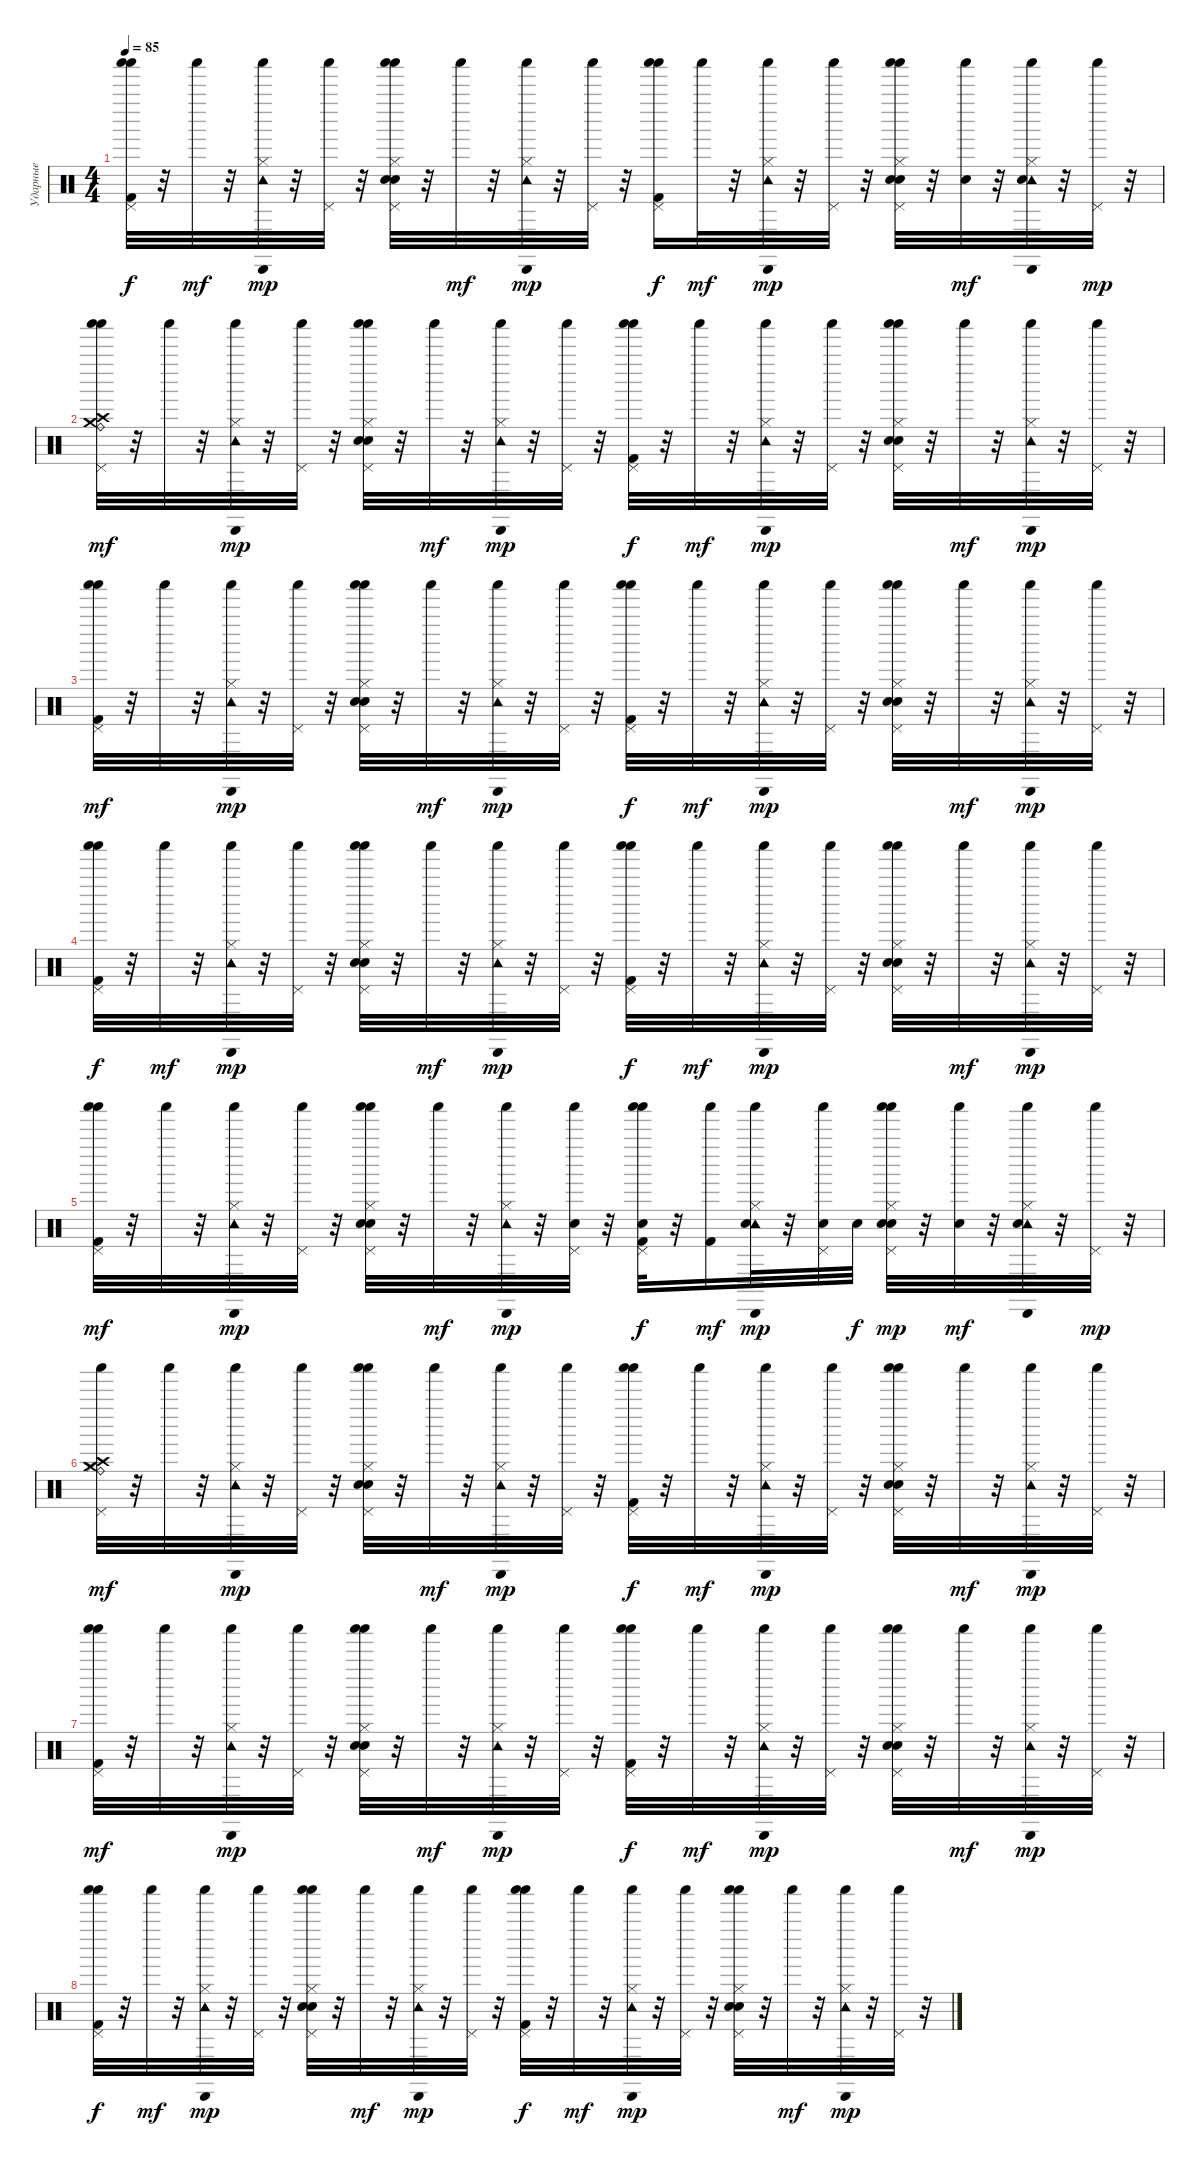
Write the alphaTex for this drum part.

\track ("Ударные" "Ударные") {instrument percussion}
\staff {score}
\articulation defaults
\ts (4 4)
\tempo 85
\clef neutral
\ks c
("Pedal Hi-Hat (hit)" "Shaker (hit)" "Shaker (hit)" "Kick (hit) 2").32{dy f} r.32 "Shaker (hit)".32{dy mf} r.32 ("Hi-Hat (closed)" "Cabasa (hit)" "Shaker (hit)" "Tambourine (hit)").32{dy mp} r.32 ("Pedal Hi-Hat (hit)" "Shaker (hit)").32 r.32 ("Hi-Hat (closed)" "Pedal Hi-Hat (hit)" "Shaker (hit)" "Shaker (hit)" "Snare (hit) 2" "Electric Snare (hit)").32 r.32 "Shaker (hit)".32{dy mf} r.32 ("Hi-Hat (closed)" "Cabasa (hit)" "Shaker (hit)" "Tambourine (hit)").32{dy mp} r.32 ("Pedal Hi-Hat (hit)" "Shaker (hit)").32 r.32 ("Pedal Hi-Hat (hit)" "Shaker (hit)" "Shaker (hit)" "Kick (hit) 2").16{dy f} "Shaker (hit)".32{dy mf} r.32 ("Hi-Hat (closed)" "Cabasa (hit)" "Shaker (hit)" "Tambourine (hit)").32{dy mp} r.32 ("Pedal Hi-Hat (hit)" "Shaker (hit)").32 r.32 ("Hi-Hat (closed)" "Pedal Hi-Hat (hit)" "Shaker (hit)" "Shaker (hit)" "Snare (hit) 2" "Electric Snare (hit)").32 r.32 ("Shaker (hit)" "Snare (hit) 2").32{dy mf} r.32 ("Hi-Hat (closed)" "Cabasa (hit)" "Shaker (hit)" "Tambourine (hit)" "Snare (hit) 2").32 r.32 ("Pedal Hi-Hat (hit)" "Shaker (hit)").32{dy mp} r.32 |
("Ride (bell)" "Crash high (hit)" "Crash medium (hit)" "Pedal Hi-Hat (hit)" "Shaker (hit)" "Shaker (hit)").32{dy mf} r.32 "Shaker (hit)".32 r.32 ("Hi-Hat (closed)" "Cabasa (hit)" "Shaker (hit)" "Tambourine (hit)").32{dy mp} r.32 ("Pedal Hi-Hat (hit)" "Shaker (hit)").32 r.32 ("Hi-Hat (closed)" "Pedal Hi-Hat (hit)" "Shaker (hit)" "Shaker (hit)" "Snare (hit) 2" "Electric Snare (hit)").32 r.32 "Shaker (hit)".32{dy mf} r.32 ("Hi-Hat (closed)" "Cabasa (hit)" "Shaker (hit)" "Tambourine (hit)").32{dy mp} r.32 ("Pedal Hi-Hat (hit)" "Shaker (hit)").32 r.32 ("Pedal Hi-Hat (hit)" "Shaker (hit)" "Shaker (hit)" "Kick (hit) 2").32{dy f} r.32 "Shaker (hit)".32{dy mf} r.32 ("Hi-Hat (closed)" "Cabasa (hit)" "Shaker (hit)" "Tambourine (hit)").32{dy mp} r.32 ("Pedal Hi-Hat (hit)" "Shaker (hit)").32 r.32 ("Hi-Hat (closed)" "Pedal Hi-Hat (hit)" "Shaker (hit)" "Shaker (hit)" "Snare (hit) 2" "Electric Snare (hit)").32 r.32 "Shaker (hit)".32{dy mf} r.32 ("Hi-Hat (closed)" "Cabasa (hit)" "Shaker (hit)" "Tambourine (hit)").32{dy mp} r.32 ("Pedal Hi-Hat (hit)" "Shaker (hit)").32 r.32 |
("Pedal Hi-Hat (hit)" "Shaker (hit)" "Shaker (hit)" "Kick (hit) 2").32{dy mf} r.32 "Shaker (hit)".32 r.32 ("Hi-Hat (closed)" "Cabasa (hit)" "Shaker (hit)" "Tambourine (hit)").32{dy mp} r.32 ("Pedal Hi-Hat (hit)" "Shaker (hit)").32 r.32 ("Hi-Hat (closed)" "Pedal Hi-Hat (hit)" "Shaker (hit)" "Shaker (hit)" "Snare (hit) 2" "Electric Snare (hit)").32 r.32 "Shaker (hit)".32{dy mf} r.32 ("Hi-Hat (closed)" "Cabasa (hit)" "Shaker (hit)" "Tambourine (hit)").32{dy mp} r.32 ("Pedal Hi-Hat (hit)" "Shaker (hit)").32 r.32 ("Pedal Hi-Hat (hit)" "Shaker (hit)" "Shaker (hit)" "Kick (hit) 2").32{dy f} r.32 "Shaker (hit)".32{dy mf} r.32 ("Hi-Hat (closed)" "Cabasa (hit)" "Shaker (hit)" "Tambourine (hit)").32{dy mp} r.32 ("Pedal Hi-Hat (hit)" "Shaker (hit)").32 r.32 ("Hi-Hat (closed)" "Pedal Hi-Hat (hit)" "Shaker (hit)" "Shaker (hit)" "Snare (hit) 2" "Electric Snare (hit)").32 r.32 "Shaker (hit)".32{dy mf} r.32 ("Hi-Hat (closed)" "Cabasa (hit)" "Shaker (hit)" "Tambourine (hit)").32{dy mp} r.32 ("Pedal Hi-Hat (hit)" "Shaker (hit)").32 r.32 |
("Pedal Hi-Hat (hit)" "Shaker (hit)" "Shaker (hit)" "Kick (hit) 2").32{dy f} r.32 "Shaker (hit)".32{dy mf} r.32 ("Hi-Hat (closed)" "Cabasa (hit)" "Shaker (hit)" "Tambourine (hit)").32{dy mp} r.32 ("Pedal Hi-Hat (hit)" "Shaker (hit)").32 r.32 ("Hi-Hat (closed)" "Pedal Hi-Hat (hit)" "Shaker (hit)" "Shaker (hit)" "Snare (hit) 2" "Electric Snare (hit)").32 r.32 "Shaker (hit)".32{dy mf} r.32 ("Hi-Hat (closed)" "Cabasa (hit)" "Shaker (hit)" "Tambourine (hit)").32{dy mp} r.32 ("Pedal Hi-Hat (hit)" "Shaker (hit)").32 r.32 ("Pedal Hi-Hat (hit)" "Shaker (hit)" "Shaker (hit)" "Kick (hit) 2").32{dy f} r.32 "Shaker (hit)".32{dy mf} r.32 ("Hi-Hat (closed)" "Cabasa (hit)" "Shaker (hit)" "Tambourine (hit)").32{dy mp} r.32 ("Pedal Hi-Hat (hit)" "Shaker (hit)").32 r.32 ("Hi-Hat (closed)" "Pedal Hi-Hat (hit)" "Shaker (hit)" "Shaker (hit)" "Snare (hit) 2" "Electric Snare (hit)").32 r.32 "Shaker (hit)".32{dy mf} r.32 ("Hi-Hat (closed)" "Cabasa (hit)" "Shaker (hit)" "Tambourine (hit)").32{dy mp} r.32 ("Pedal Hi-Hat (hit)" "Shaker (hit)").32 r.32 |
("Pedal Hi-Hat (hit)" "Shaker (hit)" "Shaker (hit)" "Kick (hit) 2").32{dy mf} r.32 "Shaker (hit)".32 r.32 ("Hi-Hat (closed)" "Cabasa (hit)" "Shaker (hit)" "Tambourine (hit)").32{dy mp} r.32 ("Pedal Hi-Hat (hit)" "Shaker (hit)").32 r.32 ("Hi-Hat (closed)" "Pedal Hi-Hat (hit)" "Shaker (hit)" "Shaker (hit)" "Snare (hit) 2" "Electric Snare (hit)").32 r.32 "Shaker (hit)".32{dy mf} r.32 ("Hi-Hat (closed)" "Cabasa (hit)" "Shaker (hit)" "Tambourine (hit)").32{dy mp} r.32 ("Pedal Hi-Hat (hit)" "Shaker (hit)" "Snare (hit) 2").32 r.32 ("Pedal Hi-Hat (hit)" "Shaker (hit)" "Shaker (hit)" "Kick (hit) 2" "Snare (hit) 2").32{dy f} r.32 ("Shaker (hit)" "Kick (hit) 2").16{dy mf} ("Hi-Hat (closed)" "Cabasa (hit)" "Shaker (hit)" "Tambourine (hit)" "Snare (hit) 2").32{dy mp} r.32 ("Pedal Hi-Hat (hit)" "Shaker (hit)" "Snare (hit) 2").32 "Snare (hit) 2".32{dy f} ("Hi-Hat (closed)" "Pedal Hi-Hat (hit)" "Shaker (hit)" "Shaker (hit)" "Snare (hit) 2" "Electric Snare (hit)").32{dy mp} r.32 ("Shaker (hit)" "Snare (hit) 2").32{dy mf} r.32 ("Hi-Hat (closed)" "Cabasa (hit)" "Shaker (hit)" "Tambourine (hit)" "Snare (hit) 2").32 r.32 ("Pedal Hi-Hat (hit)" "Shaker (hit)").32{dy mp} r.32 |
("Ride (bell)" "Hi-Hat (closed)" "Crash high (hit)" "Crash medium (hit)" "Pedal Hi-Hat (hit)" "Shaker (hit)").32{dy mf} r.32 "Shaker (hit)".32 r.32 ("Hi-Hat (closed)" "Cabasa (hit)" "Shaker (hit)" "Tambourine (hit)").32{dy mp} r.32 ("Pedal Hi-Hat (hit)" "Shaker (hit)").32 r.32 ("Hi-Hat (closed)" "Pedal Hi-Hat (hit)" "Shaker (hit)" "Shaker (hit)" "Snare (hit) 2" "Electric Snare (hit)").32 r.32 "Shaker (hit)".32{dy mf} r.32 ("Hi-Hat (closed)" "Cabasa (hit)" "Shaker (hit)" "Tambourine (hit)").32{dy mp} r.32 ("Pedal Hi-Hat (hit)" "Shaker (hit)").32 r.32 ("Pedal Hi-Hat (hit)" "Shaker (hit)" "Shaker (hit)" "Kick (hit) 2").32{dy f} r.32 "Shaker (hit)".32{dy mf} r.32 ("Hi-Hat (closed)" "Cabasa (hit)" "Shaker (hit)" "Tambourine (hit)").32{dy mp} r.32 ("Pedal Hi-Hat (hit)" "Shaker (hit)").32 r.32 ("Hi-Hat (closed)" "Pedal Hi-Hat (hit)" "Shaker (hit)" "Shaker (hit)" "Snare (hit) 2" "Electric Snare (hit)").32 r.32 "Shaker (hit)".32{dy mf} r.32 ("Hi-Hat (closed)" "Cabasa (hit)" "Shaker (hit)" "Tambourine (hit)").32{dy mp} r.32 ("Pedal Hi-Hat (hit)" "Shaker (hit)").32 r.32 |
("Pedal Hi-Hat (hit)" "Shaker (hit)" "Shaker (hit)" "Kick (hit) 2").32{dy mf} r.32 "Shaker (hit)".32 r.32 ("Hi-Hat (closed)" "Cabasa (hit)" "Shaker (hit)" "Tambourine (hit)").32{dy mp} r.32 ("Pedal Hi-Hat (hit)" "Shaker (hit)").32 r.32 ("Hi-Hat (closed)" "Pedal Hi-Hat (hit)" "Shaker (hit)" "Shaker (hit)" "Snare (hit) 2" "Electric Snare (hit)").32 r.32 "Shaker (hit)".32{dy mf} r.32 ("Hi-Hat (closed)" "Cabasa (hit)" "Shaker (hit)" "Tambourine (hit)").32{dy mp} r.32 ("Pedal Hi-Hat (hit)" "Shaker (hit)").32 r.32 ("Pedal Hi-Hat (hit)" "Shaker (hit)" "Shaker (hit)" "Kick (hit) 2").32{dy f} r.32 "Shaker (hit)".32{dy mf} r.32 ("Hi-Hat (closed)" "Cabasa (hit)" "Shaker (hit)" "Tambourine (hit)").32{dy mp} r.32 ("Pedal Hi-Hat (hit)" "Shaker (hit)").32 r.32 ("Hi-Hat (closed)" "Pedal Hi-Hat (hit)" "Shaker (hit)" "Shaker (hit)" "Snare (hit) 2" "Electric Snare (hit)").32 r.32 "Shaker (hit)".32{dy mf} r.32 ("Hi-Hat (closed)" "Cabasa (hit)" "Shaker (hit)" "Tambourine (hit)").32{dy mp} r.32 ("Pedal Hi-Hat (hit)" "Shaker (hit)").32 r.32 |
("Pedal Hi-Hat (hit)" "Shaker (hit)" "Shaker (hit)" "Kick (hit) 2").32{dy f} r.32 "Shaker (hit)".32{dy mf} r.32 ("Hi-Hat (closed)" "Cabasa (hit)" "Shaker (hit)" "Tambourine (hit)").32{dy mp} r.32 ("Pedal Hi-Hat (hit)" "Shaker (hit)").32 r.32 ("Hi-Hat (closed)" "Pedal Hi-Hat (hit)" "Shaker (hit)" "Shaker (hit)" "Snare (hit) 2" "Electric Snare (hit)").32 r.32 "Shaker (hit)".32{dy mf} r.32 ("Hi-Hat (closed)" "Cabasa (hit)" "Shaker (hit)" "Tambourine (hit)").32{dy mp} r.32 ("Pedal Hi-Hat (hit)" "Shaker (hit)").32 r.32 ("Pedal Hi-Hat (hit)" "Shaker (hit)" "Shaker (hit)" "Kick (hit) 2").32{dy f} r.32 "Shaker (hit)".32{dy mf} r.32 ("Hi-Hat (closed)" "Cabasa (hit)" "Shaker (hit)" "Tambourine (hit)").32{dy mp} r.32 ("Pedal Hi-Hat (hit)" "Shaker (hit)").32 r.32 ("Hi-Hat (closed)" "Pedal Hi-Hat (hit)" "Shaker (hit)" "Shaker (hit)" "Snare (hit) 2" "Electric Snare (hit)").32 r.32 "Shaker (hit)".32{dy mf} r.32 ("Hi-Hat (closed)" "Cabasa (hit)" "Shaker (hit)" "Tambourine (hit)").32{dy mp} r.32 ("Pedal Hi-Hat (hit)" "Shaker (hit)").32 r.32
